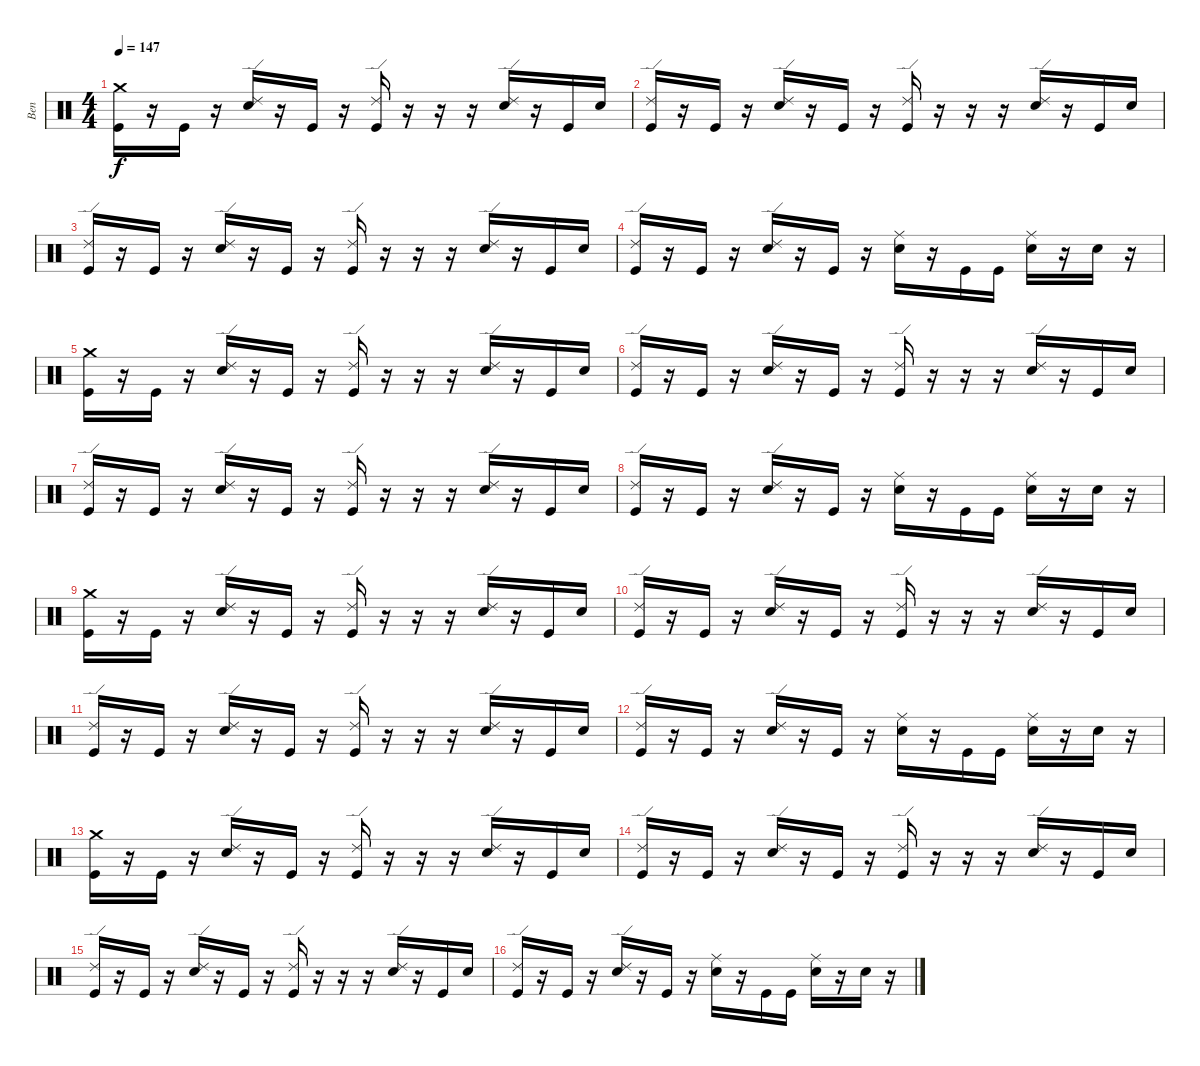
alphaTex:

\track ("Ben" "Ben") {instrument percussion}
\staff {score}
\articulation defaults
\ts (4 4)
\tempo 147
\clef neutral
\ks c
("Crash medium (hit)" "Kick (hit)").16{dy f} r.16 "Kick (hit)".16 r.16 ("Ride (edge) 2" "Electric Snare (hit)").16 r.16 "Kick (hit)".16 r.16 ("Ride (edge) 2" "Kick (hit)").16 r.16 r.16 r.16 ("Ride (edge) 2" "Electric Snare (hit)").16 r.16 "Kick (hit)".16 "Electric Snare (hit)".16 |
("Ride (edge) 2" "Kick (hit)").16 r.16 "Kick (hit)".16 r.16 ("Ride (edge) 2" "Electric Snare (hit)").16 r.16 "Kick (hit)".16 r.16 ("Ride (edge) 2" "Kick (hit)").16 r.16 r.16 r.16 ("Ride (edge) 2" "Electric Snare (hit)").16 r.16 "Kick (hit)".16 "Electric Snare (hit)".16 |
("Ride (edge) 2" "Kick (hit)").16 r.16 "Kick (hit)".16 r.16 ("Ride (edge) 2" "Electric Snare (hit)").16 r.16 "Kick (hit)".16 r.16 ("Ride (edge) 2" "Kick (hit)").16 r.16 r.16 r.16 ("Ride (edge) 2" "Electric Snare (hit)").16 r.16 "Kick (hit)".16 "Electric Snare (hit)".16 |
("Ride (edge) 2" "Kick (hit)").16 r.16 "Kick (hit)".16 r.16 ("Ride (edge) 2" "Electric Snare (hit)").16 r.16 "Kick (hit)".16 r.16 ("Ride (middle)" "Electric Snare (hit)").16 r.16 "Kick (hit)".16 "Kick (hit)".16 ("Ride (middle)" "Electric Snare (hit)").16 r.16 "Electric Snare (hit)".16 r.16 |
("Crash medium (hit)" "Kick (hit)").16 r.16 "Kick (hit)".16 r.16 ("Ride (edge) 2" "Electric Snare (hit)").16 r.16 "Kick (hit)".16 r.16 ("Ride (edge) 2" "Kick (hit)").16 r.16 r.16 r.16 ("Ride (edge) 2" "Electric Snare (hit)").16 r.16 "Kick (hit)".16 "Electric Snare (hit)".16 |
("Ride (edge) 2" "Kick (hit)").16 r.16 "Kick (hit)".16 r.16 ("Ride (edge) 2" "Electric Snare (hit)").16 r.16 "Kick (hit)".16 r.16 ("Ride (edge) 2" "Kick (hit)").16 r.16 r.16 r.16 ("Ride (edge) 2" "Electric Snare (hit)").16 r.16 "Kick (hit)".16 "Electric Snare (hit)".16 |
("Ride (edge) 2" "Kick (hit)").16 r.16 "Kick (hit)".16 r.16 ("Ride (edge) 2" "Electric Snare (hit)").16 r.16 "Kick (hit)".16 r.16 ("Ride (edge) 2" "Kick (hit)").16 r.16 r.16 r.16 ("Ride (edge) 2" "Electric Snare (hit)").16 r.16 "Kick (hit)".16 "Electric Snare (hit)".16 |
("Ride (edge) 2" "Kick (hit)").16 r.16 "Kick (hit)".16 r.16 ("Ride (edge) 2" "Electric Snare (hit)").16 r.16 "Kick (hit)".16 r.16 ("Ride (middle)" "Electric Snare (hit)").16 r.16 "Kick (hit)".16 "Kick (hit)".16 ("Ride (middle)" "Electric Snare (hit)").16 r.16 "Electric Snare (hit)".16 r.16 |
("Crash medium (hit)" "Kick (hit)").16 r.16 "Kick (hit)".16 r.16 ("Ride (edge) 2" "Electric Snare (hit)").16 r.16 "Kick (hit)".16 r.16 ("Ride (edge) 2" "Kick (hit)").16 r.16 r.16 r.16 ("Ride (edge) 2" "Electric Snare (hit)").16 r.16 "Kick (hit)".16 "Electric Snare (hit)".16 |
("Ride (edge) 2" "Kick (hit)").16 r.16 "Kick (hit)".16 r.16 ("Ride (edge) 2" "Electric Snare (hit)").16 r.16 "Kick (hit)".16 r.16 ("Ride (edge) 2" "Kick (hit)").16 r.16 r.16 r.16 ("Ride (edge) 2" "Electric Snare (hit)").16 r.16 "Kick (hit)".16 "Electric Snare (hit)".16 |
("Ride (edge) 2" "Kick (hit)").16 r.16 "Kick (hit)".16 r.16 ("Ride (edge) 2" "Electric Snare (hit)").16 r.16 "Kick (hit)".16 r.16 ("Ride (edge) 2" "Kick (hit)").16 r.16 r.16 r.16 ("Ride (edge) 2" "Electric Snare (hit)").16 r.16 "Kick (hit)".16 "Electric Snare (hit)".16 |
("Ride (edge) 2" "Kick (hit)").16 r.16 "Kick (hit)".16 r.16 ("Ride (edge) 2" "Electric Snare (hit)").16 r.16 "Kick (hit)".16 r.16 ("Ride (middle)" "Electric Snare (hit)").16 r.16 "Kick (hit)".16 "Kick (hit)".16 ("Ride (middle)" "Electric Snare (hit)").16 r.16 "Electric Snare (hit)".16 r.16 |
("Crash medium (hit)" "Kick (hit)").16 r.16 "Kick (hit)".16 r.16 ("Ride (edge) 2" "Electric Snare (hit)").16 r.16 "Kick (hit)".16 r.16 ("Ride (edge) 2" "Kick (hit)").16 r.16 r.16 r.16 ("Ride (edge) 2" "Electric Snare (hit)").16 r.16 "Kick (hit)".16 "Electric Snare (hit)".16 |
("Ride (edge) 2" "Kick (hit)").16 r.16 "Kick (hit)".16 r.16 ("Ride (edge) 2" "Electric Snare (hit)").16 r.16 "Kick (hit)".16 r.16 ("Ride (edge) 2" "Kick (hit)").16 r.16 r.16 r.16 ("Ride (edge) 2" "Electric Snare (hit)").16 r.16 "Kick (hit)".16 "Electric Snare (hit)".16 |
("Ride (edge) 2" "Kick (hit)").16 r.16 "Kick (hit)".16 r.16 ("Ride (edge) 2" "Electric Snare (hit)").16 r.16 "Kick (hit)".16 r.16 ("Ride (edge) 2" "Kick (hit)").16 r.16 r.16 r.16 ("Ride (edge) 2" "Electric Snare (hit)").16 r.16 "Kick (hit)".16 "Electric Snare (hit)".16 |
("Ride (edge) 2" "Kick (hit)").16 r.16 "Kick (hit)".16 r.16 ("Ride (edge) 2" "Electric Snare (hit)").16 r.16 "Kick (hit)".16 r.16 ("Ride (middle)" "Electric Snare (hit)").16 r.16 "Kick (hit)".16 "Kick (hit)".16 ("Ride (middle)" "Electric Snare (hit)").16 r.16 "Electric Snare (hit)".16 r.16
